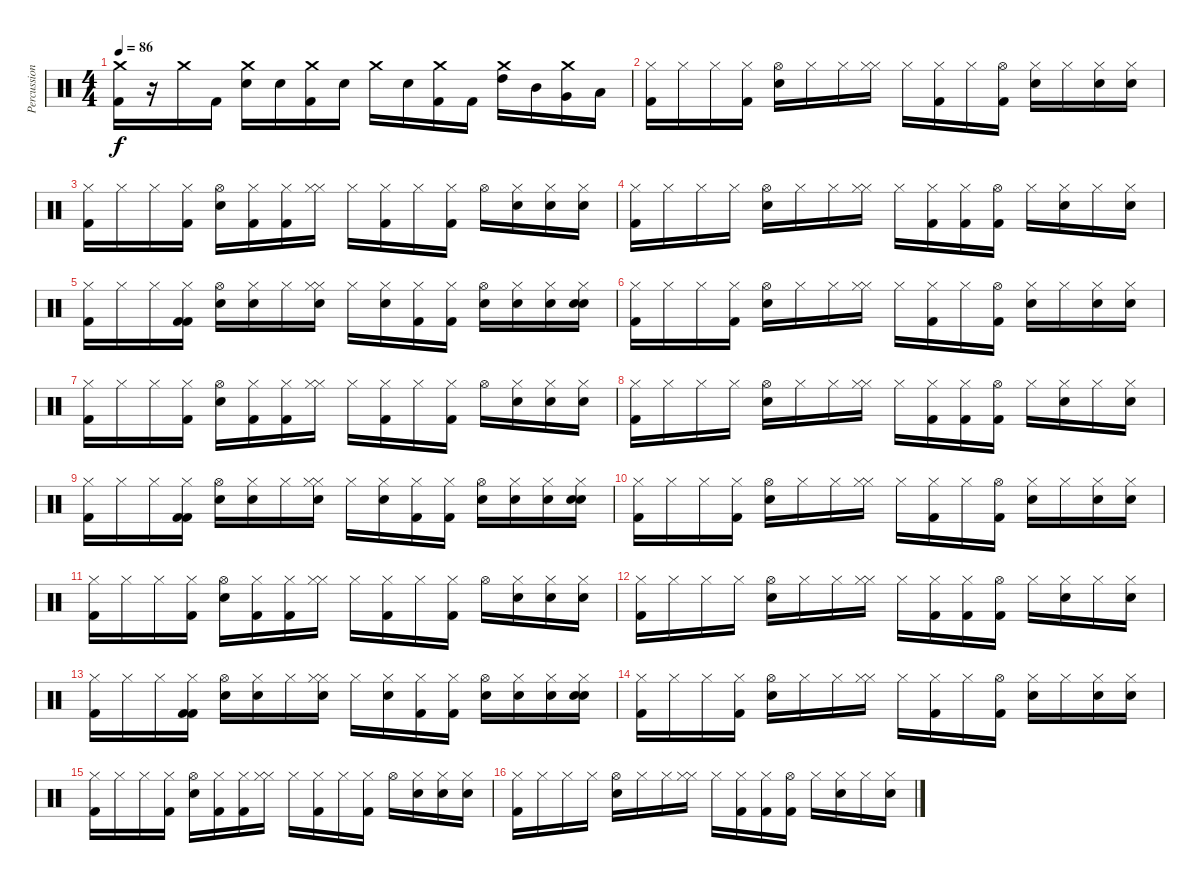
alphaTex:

\track ("Percussion" "Percussion") {instrument percussion}
\staff {score}
\articulation defaults
\ts (4 4)
\tempo 86
\clef neutral
\ks c
("Crash medium (hit)" "Kick (hit) 2").16{dy f} r.16 "Crash medium (hit)".16 "Kick (hit) 2".16 ("Crash medium (hit)" "Electric Snare (hit)").16 "Electric Snare (hit)".16 ("Crash medium (hit)" "Kick (hit) 2").16 "Electric Snare (hit)".16 "Crash medium (hit)".16 "Electric Snare (hit)".16 ("Crash medium (hit)" "Kick (hit) 2").16 "Kick (hit) 2".16 ("Crash medium (hit)" "High Tom (hit)").16 "Mid Tom (hit)".16 ("Crash medium (hit)" "Very Low Tom (hit)").16 "Low Floor Tom (hit)".16 |
("Hi-Hat (closed)" "Kick (hit) 2").16 "Hi-Hat (closed)".16 "Hi-Hat (closed)".16 ("Hi-Hat (closed)" "Kick (hit) 2").16 ("Hi-Hat (open)" "Electric Snare (hit)").16 "Hi-Hat (closed)".16 "Hi-Hat (closed)".16 ("Hi-Hat (closed)" "Hi-Hat (closed)").16 "Hi-Hat (closed)".16 ("Hi-Hat (closed)" "Kick (hit) 2").16 "Hi-Hat (closed)".16 ("Hi-Hat (open)" "Kick (hit) 2").16 ("Hi-Hat (closed)" "Electric Snare (hit)").16 "Hi-Hat (closed)".16 ("Hi-Hat (closed)" "Electric Snare (hit)").16 ("Hi-Hat (closed)" "Electric Snare (hit)").16 |
("Hi-Hat (closed)" "Kick (hit) 2").16 "Hi-Hat (closed)".16 "Hi-Hat (closed)".16 ("Hi-Hat (closed)" "Kick (hit) 2").16 ("Hi-Hat (open)" "Electric Snare (hit)").16 ("Hi-Hat (closed)" "Kick (hit) 2").16 ("Hi-Hat (closed)" "Kick (hit) 2").16 ("Hi-Hat (closed)" "Hi-Hat (closed)").16 "Hi-Hat (closed)".16 ("Hi-Hat (closed)" "Kick (hit) 2").16 "Hi-Hat (closed)".16 ("Hi-Hat (closed)" "Kick (hit) 2").16 "Hi-Hat (open)".16 ("Hi-Hat (closed)" "Electric Snare (hit)").16 ("Hi-Hat (closed)" "Electric Snare (hit)").16 ("Hi-Hat (closed)" "Electric Snare (hit)").16 |
("Hi-Hat (closed)" "Kick (hit) 2").16 "Hi-Hat (closed)".16 "Hi-Hat (closed)".16 "Hi-Hat (closed)".16 ("Hi-Hat (open)" "Electric Snare (hit)").16 "Hi-Hat (closed)".16 "Hi-Hat (closed)".16 ("Hi-Hat (closed)" "Hi-Hat (closed)").16 "Hi-Hat (closed)".16 ("Hi-Hat (closed)" "Kick (hit) 2").16 ("Hi-Hat (closed)" "Kick (hit) 2").16 ("Hi-Hat (open)" "Kick (hit) 2").16 "Hi-Hat (closed)".16 ("Hi-Hat (closed)" "Electric Snare (hit)").16 "Hi-Hat (closed)".16 ("Hi-Hat (closed)" "Electric Snare (hit)").16 |
("Hi-Hat (closed)" "Kick (hit) 2").16 "Hi-Hat (closed)".16 "Hi-Hat (closed)".16 ("Hi-Hat (closed)" "Kick (hit) 2" "Kick (hit) 2").16 ("Hi-Hat (open)" "Electric Snare (hit)").16 ("Hi-Hat (closed)" "Electric Snare (hit)").16 "Hi-Hat (closed)".16 ("Hi-Hat (closed)" "Electric Snare (hit)" "Hi-Hat (closed)").16 "Hi-Hat (closed)".16 ("Hi-Hat (closed)" "Electric Snare (hit)").16 ("Hi-Hat (closed)" "Kick (hit) 2").16 ("Hi-Hat (closed)" "Kick (hit) 2").16 ("Hi-Hat (open)" "Electric Snare (hit)").16 ("Hi-Hat (closed)" "Electric Snare (hit)").16 ("Hi-Hat (closed)" "Electric Snare (hit)").16 ("Hi-Hat (closed)" "Electric Snare (hit)" "Electric Snare (hit)").16 |
("Hi-Hat (closed)" "Kick (hit) 2").16 "Hi-Hat (closed)".16 "Hi-Hat (closed)".16 ("Hi-Hat (closed)" "Kick (hit) 2").16 ("Hi-Hat (open)" "Electric Snare (hit)").16 "Hi-Hat (closed)".16 "Hi-Hat (closed)".16 ("Hi-Hat (closed)" "Hi-Hat (closed)").16 "Hi-Hat (closed)".16 ("Hi-Hat (closed)" "Kick (hit) 2").16 "Hi-Hat (closed)".16 ("Hi-Hat (open)" "Kick (hit) 2").16 ("Hi-Hat (closed)" "Electric Snare (hit)").16 "Hi-Hat (closed)".16 ("Hi-Hat (closed)" "Electric Snare (hit)").16 ("Hi-Hat (closed)" "Electric Snare (hit)").16 |
("Hi-Hat (closed)" "Kick (hit) 2").16 "Hi-Hat (closed)".16 "Hi-Hat (closed)".16 ("Hi-Hat (closed)" "Kick (hit) 2").16 ("Hi-Hat (open)" "Electric Snare (hit)").16 ("Hi-Hat (closed)" "Kick (hit) 2").16 ("Hi-Hat (closed)" "Kick (hit) 2").16 ("Hi-Hat (closed)" "Hi-Hat (closed)").16 "Hi-Hat (closed)".16 ("Hi-Hat (closed)" "Kick (hit) 2").16 "Hi-Hat (closed)".16 ("Hi-Hat (closed)" "Kick (hit) 2").16 "Hi-Hat (open)".16 ("Hi-Hat (closed)" "Electric Snare (hit)").16 ("Hi-Hat (closed)" "Electric Snare (hit)").16 ("Hi-Hat (closed)" "Electric Snare (hit)").16 |
("Hi-Hat (closed)" "Kick (hit) 2").16 "Hi-Hat (closed)".16 "Hi-Hat (closed)".16 "Hi-Hat (closed)".16 ("Hi-Hat (open)" "Electric Snare (hit)").16 "Hi-Hat (closed)".16 "Hi-Hat (closed)".16 ("Hi-Hat (closed)" "Hi-Hat (closed)").16 "Hi-Hat (closed)".16 ("Hi-Hat (closed)" "Kick (hit) 2").16 ("Hi-Hat (closed)" "Kick (hit) 2").16 ("Hi-Hat (open)" "Kick (hit) 2").16 "Hi-Hat (closed)".16 ("Hi-Hat (closed)" "Electric Snare (hit)").16 "Hi-Hat (closed)".16 ("Hi-Hat (closed)" "Electric Snare (hit)").16 |
("Hi-Hat (closed)" "Kick (hit) 2").16 "Hi-Hat (closed)".16 "Hi-Hat (closed)".16 ("Hi-Hat (closed)" "Kick (hit) 2" "Kick (hit) 2").16 ("Hi-Hat (open)" "Electric Snare (hit)").16 ("Hi-Hat (closed)" "Electric Snare (hit)").16 "Hi-Hat (closed)".16 ("Hi-Hat (closed)" "Electric Snare (hit)" "Hi-Hat (closed)").16 "Hi-Hat (closed)".16 ("Hi-Hat (closed)" "Electric Snare (hit)").16 ("Hi-Hat (closed)" "Kick (hit) 2").16 ("Hi-Hat (closed)" "Kick (hit) 2").16 ("Hi-Hat (open)" "Electric Snare (hit)").16 ("Hi-Hat (closed)" "Electric Snare (hit)").16 ("Hi-Hat (closed)" "Electric Snare (hit)").16 ("Hi-Hat (closed)" "Electric Snare (hit)" "Electric Snare (hit)").16 |
("Hi-Hat (closed)" "Kick (hit) 2").16 "Hi-Hat (closed)".16 "Hi-Hat (closed)".16 ("Hi-Hat (closed)" "Kick (hit) 2").16 ("Hi-Hat (open)" "Electric Snare (hit)").16 "Hi-Hat (closed)".16 "Hi-Hat (closed)".16 ("Hi-Hat (closed)" "Hi-Hat (closed)").16 "Hi-Hat (closed)".16 ("Hi-Hat (closed)" "Kick (hit) 2").16 "Hi-Hat (closed)".16 ("Hi-Hat (open)" "Kick (hit) 2").16 ("Hi-Hat (closed)" "Electric Snare (hit)").16 "Hi-Hat (closed)".16 ("Hi-Hat (closed)" "Electric Snare (hit)").16 ("Hi-Hat (closed)" "Electric Snare (hit)").16 |
("Hi-Hat (closed)" "Kick (hit) 2").16 "Hi-Hat (closed)".16 "Hi-Hat (closed)".16 ("Hi-Hat (closed)" "Kick (hit) 2").16 ("Hi-Hat (open)" "Electric Snare (hit)").16 ("Hi-Hat (closed)" "Kick (hit) 2").16 ("Hi-Hat (closed)" "Kick (hit) 2").16 ("Hi-Hat (closed)" "Hi-Hat (closed)").16 "Hi-Hat (closed)".16 ("Hi-Hat (closed)" "Kick (hit) 2").16 "Hi-Hat (closed)".16 ("Hi-Hat (closed)" "Kick (hit) 2").16 "Hi-Hat (open)".16 ("Hi-Hat (closed)" "Electric Snare (hit)").16 ("Hi-Hat (closed)" "Electric Snare (hit)").16 ("Hi-Hat (closed)" "Electric Snare (hit)").16 |
("Hi-Hat (closed)" "Kick (hit) 2").16 "Hi-Hat (closed)".16 "Hi-Hat (closed)".16 "Hi-Hat (closed)".16 ("Hi-Hat (open)" "Electric Snare (hit)").16 "Hi-Hat (closed)".16 "Hi-Hat (closed)".16 ("Hi-Hat (closed)" "Hi-Hat (closed)").16 "Hi-Hat (closed)".16 ("Hi-Hat (closed)" "Kick (hit) 2").16 ("Hi-Hat (closed)" "Kick (hit) 2").16 ("Hi-Hat (open)" "Kick (hit) 2").16 "Hi-Hat (closed)".16 ("Hi-Hat (closed)" "Electric Snare (hit)").16 "Hi-Hat (closed)".16 ("Hi-Hat (closed)" "Electric Snare (hit)").16 |
("Hi-Hat (closed)" "Kick (hit) 2").16 "Hi-Hat (closed)".16 "Hi-Hat (closed)".16 ("Hi-Hat (closed)" "Kick (hit) 2" "Kick (hit) 2").16 ("Hi-Hat (open)" "Electric Snare (hit)").16 ("Hi-Hat (closed)" "Electric Snare (hit)").16 "Hi-Hat (closed)".16 ("Hi-Hat (closed)" "Electric Snare (hit)" "Hi-Hat (closed)").16 "Hi-Hat (closed)".16 ("Hi-Hat (closed)" "Electric Snare (hit)").16 ("Hi-Hat (closed)" "Kick (hit) 2").16 ("Hi-Hat (closed)" "Kick (hit) 2").16 ("Hi-Hat (open)" "Electric Snare (hit)").16 ("Hi-Hat (closed)" "Electric Snare (hit)").16 ("Hi-Hat (closed)" "Electric Snare (hit)").16 ("Hi-Hat (closed)" "Electric Snare (hit)" "Electric Snare (hit)").16 |
("Hi-Hat (closed)" "Kick (hit) 2").16 "Hi-Hat (closed)".16 "Hi-Hat (closed)".16 ("Hi-Hat (closed)" "Kick (hit) 2").16 ("Hi-Hat (open)" "Electric Snare (hit)").16 "Hi-Hat (closed)".16 "Hi-Hat (closed)".16 ("Hi-Hat (closed)" "Hi-Hat (closed)").16 "Hi-Hat (closed)".16 ("Hi-Hat (closed)" "Kick (hit) 2").16 "Hi-Hat (closed)".16 ("Hi-Hat (open)" "Kick (hit) 2").16 ("Hi-Hat (closed)" "Electric Snare (hit)").16 "Hi-Hat (closed)".16 ("Hi-Hat (closed)" "Electric Snare (hit)").16 ("Hi-Hat (closed)" "Electric Snare (hit)").16 |
("Hi-Hat (closed)" "Kick (hit) 2").16 "Hi-Hat (closed)".16 "Hi-Hat (closed)".16 ("Hi-Hat (closed)" "Kick (hit) 2").16 ("Hi-Hat (open)" "Electric Snare (hit)").16 ("Hi-Hat (closed)" "Kick (hit) 2").16 ("Hi-Hat (closed)" "Kick (hit) 2").16 ("Hi-Hat (closed)" "Hi-Hat (closed)").16 "Hi-Hat (closed)".16 ("Hi-Hat (closed)" "Kick (hit) 2").16 "Hi-Hat (closed)".16 ("Hi-Hat (closed)" "Kick (hit) 2").16 "Hi-Hat (open)".16 ("Hi-Hat (closed)" "Electric Snare (hit)").16 ("Hi-Hat (closed)" "Electric Snare (hit)").16 ("Hi-Hat (closed)" "Electric Snare (hit)").16 |
("Hi-Hat (closed)" "Kick (hit) 2").16 "Hi-Hat (closed)".16 "Hi-Hat (closed)".16 "Hi-Hat (closed)".16 ("Hi-Hat (open)" "Electric Snare (hit)").16 "Hi-Hat (closed)".16 "Hi-Hat (closed)".16 ("Hi-Hat (closed)" "Hi-Hat (closed)").16 "Hi-Hat (closed)".16 ("Hi-Hat (closed)" "Kick (hit) 2").16 ("Hi-Hat (closed)" "Kick (hit) 2").16 ("Hi-Hat (open)" "Kick (hit) 2").16 "Hi-Hat (closed)".16 ("Hi-Hat (closed)" "Electric Snare (hit)").16 "Hi-Hat (closed)".16 ("Hi-Hat (closed)" "Electric Snare (hit)").16
